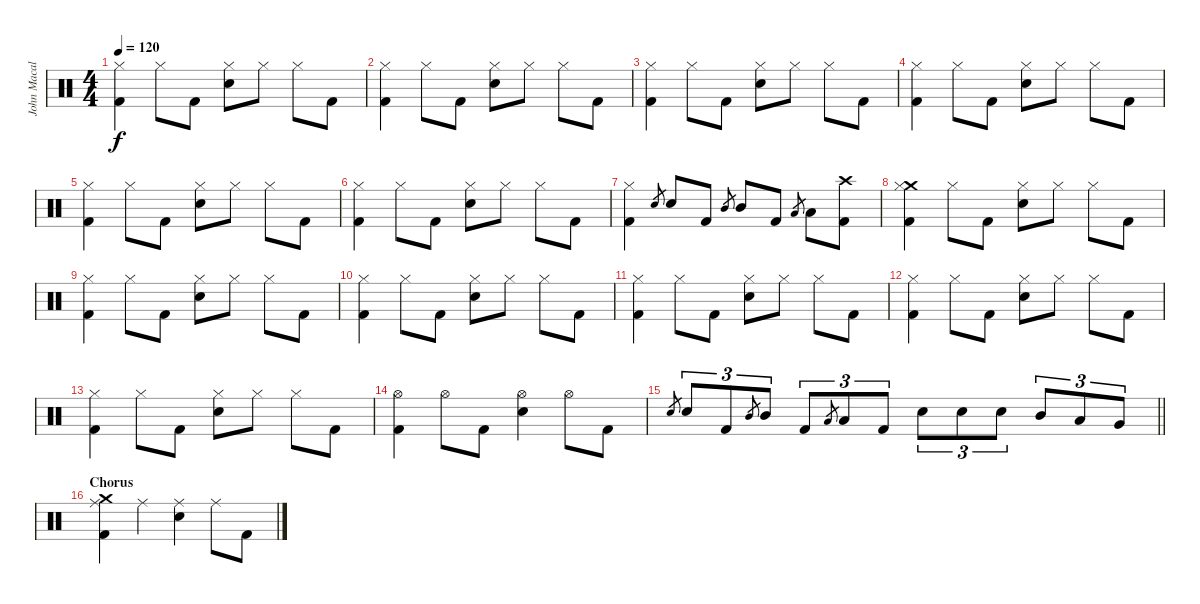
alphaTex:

\track ("John Macaluso" "John Macal") {instrument percussion}
\staff {score}
\articulation defaults
\ts (4 4)
\tempo 120
\clef neutral
\ks c
("Hi-Hat (closed)" "Kick (hit) 2").4{dy f} "Hi-Hat (closed)".8 "Kick (hit) 2".8 ("Hi-Hat (closed)" "Snare (hit) 2").8 "Hi-Hat (closed)".8 "Hi-Hat (closed)".8 "Kick (hit) 2".8 |
("Hi-Hat (closed)" "Kick (hit) 2").4 "Hi-Hat (closed)".8 "Kick (hit) 2".8 ("Hi-Hat (closed)" "Snare (hit) 2").8 "Hi-Hat (closed)".8 "Hi-Hat (closed)".8 "Kick (hit) 2".8 |
("Hi-Hat (closed)" "Kick (hit) 2").4 "Hi-Hat (closed)".8 "Kick (hit) 2".8 ("Hi-Hat (closed)" "Snare (hit) 2").8 "Hi-Hat (closed)".8 "Hi-Hat (closed)".8 "Kick (hit) 2".8 |
("Hi-Hat (closed)" "Kick (hit) 2").4 "Hi-Hat (closed)".8 "Kick (hit) 2".8 ("Hi-Hat (closed)" "Snare (hit) 2").8 "Hi-Hat (closed)".8 "Hi-Hat (closed)".8 "Kick (hit) 2".8 |
("Hi-Hat (closed)" "Kick (hit) 2").4 "Hi-Hat (closed)".8 "Kick (hit) 2".8 ("Hi-Hat (closed)" "Snare (hit) 2").8 "Hi-Hat (closed)".8 "Hi-Hat (closed)".8 "Kick (hit) 2".8 |
("Hi-Hat (closed)" "Kick (hit) 2").4 "Hi-Hat (closed)".8 "Kick (hit) 2".8 ("Hi-Hat (closed)" "Snare (hit) 2").8 "Hi-Hat (closed)".8 "Hi-Hat (closed)".8 "Kick (hit) 2".8 |
("Hi-Hat (closed)" "Kick (hit) 2").4 "Snare (hit) 2".8{gr} "Snare (hit) 2".8 "Kick (hit) 2".8 "Mid Tom (hit)".8{gr} "Mid Tom (hit)".8 "Kick (hit) 2".8 "Low Tom (hit)".8{gr} "Low Tom (hit)".8 ("Crash high (hit)" "Kick (hit) 2").8 |
("Crash medium (hit)" "Hi-Hat (closed)" "Kick (hit) 2").4 "Hi-Hat (closed)".8 "Kick (hit) 2".8 ("Hi-Hat (closed)" "Snare (hit) 2").8 "Hi-Hat (closed)".8 "Hi-Hat (closed)".8 "Kick (hit) 2".8 |
("Hi-Hat (closed)" "Kick (hit) 2").4 "Hi-Hat (closed)".8 "Kick (hit) 2".8 ("Hi-Hat (closed)" "Snare (hit) 2").8 "Hi-Hat (closed)".8 "Hi-Hat (closed)".8 "Kick (hit) 2".8 |
("Hi-Hat (closed)" "Kick (hit) 2").4 "Hi-Hat (closed)".8 "Kick (hit) 2".8 ("Hi-Hat (closed)" "Snare (hit) 2").8 "Hi-Hat (closed)".8 "Hi-Hat (closed)".8 "Kick (hit) 2".8 |
("Hi-Hat (closed)" "Kick (hit) 2").4 "Hi-Hat (closed)".8 "Kick (hit) 2".8 ("Hi-Hat (closed)" "Snare (hit) 2").8 "Hi-Hat (closed)".8 "Hi-Hat (closed)".8 "Kick (hit) 2".8 |
("Hi-Hat (closed)" "Kick (hit) 2").4 "Hi-Hat (closed)".8 "Kick (hit) 2".8 ("Hi-Hat (closed)" "Snare (hit) 2").8 "Hi-Hat (closed)".8 "Hi-Hat (closed)".8 "Kick (hit) 2".8 |
("Hi-Hat (closed)" "Kick (hit) 2").4 "Hi-Hat (closed)".8 "Kick (hit) 2".8 ("Hi-Hat (closed)" "Snare (hit) 2").8 "Hi-Hat (closed)".8 "Hi-Hat (closed)".8 "Kick (hit) 2".8 |
("Hi-Hat (open)" "Kick (hit) 2").4 "Hi-Hat (open)".8 "Kick (hit) 2".8 ("Hi-Hat (open)" "Snare (hit) 2").4 "Hi-Hat (open)".8 "Kick (hit) 2".8 |
\barLineRight lightlight "Snare (hit) 2".8{gr} "Snare (hit) 2".8{tu (3 2)} "Kick (hit) 2".8{tu (3 2)} "Mid Tom (hit)".8{gr} "Mid Tom (hit)".8{tu (3 2)} "Kick (hit) 2".8{tu (3 2)} "Low Tom (hit)".8{gr} "Low Tom (hit)".8{tu (3 2)} "Kick (hit) 2".8{tu (3 2)} "Snare (hit) 2".8{tu (3 2)} "Snare (hit) 2".8{tu (3 2)} "Snare (hit) 2".8{tu (3 2)} "Mid Tom (hit)".8{tu (3 2)} "Low Tom (hit)".8{tu (3 2)} "Very Low Tom (hit)".8{tu (3 2)}
|
\section ("" "Chorus")
("Crash medium (hit)" "Ride (middle)" "Kick (hit) 2").4 "Ride (middle)".4 ("Ride (middle)" "Snare (hit) 2").4 "Ride (middle)".8 "Kick (hit) 2".8
